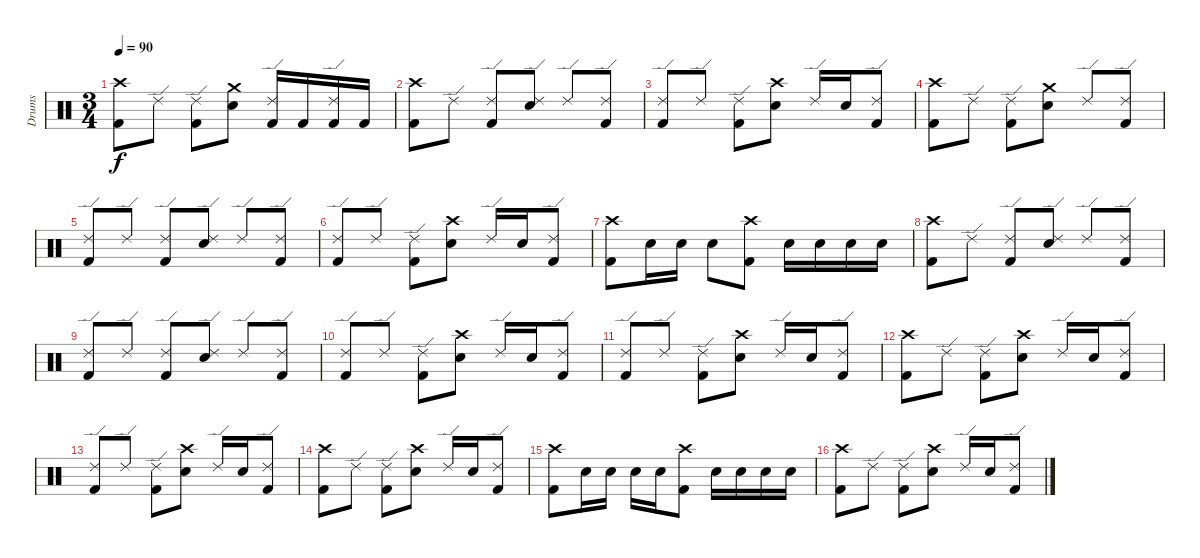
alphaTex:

\track ("Drums" "Drums") {instrument percussion}
\staff {score}
\articulation defaults
\ts (3 4)
\tempo 90
\clef neutral
\ks c
("Crash high (hit)" "Kick (hit) 2").8{dy f} "Ride (edge) 2".8 ("Ride (edge) 2" "Kick (hit) 2").8 ("Crash medium (hit)" "Electric Snare (hit)").8 ("Ride (edge) 2" "Kick (hit) 2").16 "Kick (hit) 2".16 ("Ride (edge) 2" "Kick (hit) 2").16 "Kick (hit) 2".16 |
("Crash high (hit)" "Kick (hit) 2").8 "Ride (edge) 2".8 ("Ride (edge) 2" "Kick (hit) 2").8 ("Ride (edge) 2" "Electric Snare (hit)").8 "Ride (edge) 2".8 ("Ride (edge) 2" "Kick (hit) 2").8 |
("Ride (edge) 2" "Kick (hit) 2").8 "Ride (edge) 2".8 ("Ride (edge) 2" "Kick (hit) 2").8 ("Crash high (hit)" "Electric Snare (hit)").8 "Ride (edge) 2".16 "Electric Snare (hit)".16 ("Ride (edge) 2" "Kick (hit) 2").8 |
("Crash high (hit)" "Kick (hit) 2").8 "Ride (edge) 2".8 ("Ride (edge) 2" "Kick (hit) 2").8 ("Crash medium (hit)" "Electric Snare (hit)").8 "Ride (edge) 2".8 ("Ride (edge) 2" "Kick (hit) 2").8 |
("Ride (edge) 2" "Kick (hit) 2").8 "Ride (edge) 2".8 ("Ride (edge) 2" "Kick (hit) 2").8 ("Ride (edge) 2" "Electric Snare (hit)").8 "Ride (edge) 2".8 ("Ride (edge) 2" "Kick (hit) 2").8 |
("Ride (edge) 2" "Kick (hit) 2").8 "Ride (edge) 2".8 ("Ride (edge) 2" "Kick (hit) 2").8 ("Crash high (hit)" "Electric Snare (hit)").8 "Ride (edge) 2".16 "Electric Snare (hit)".16 ("Ride (edge) 2" "Kick (hit) 2").8 |
("Crash high (hit)" "Kick (hit) 2").8 "Electric Snare (hit)".16 "Electric Snare (hit)".16 "Electric Snare (hit)".8 ("Crash high (hit)" "Kick (hit) 2").8 "Electric Snare (hit)".16 "Electric Snare (hit)".16 "Electric Snare (hit)".16 "Electric Snare (hit)".16 |
("Crash high (hit)" "Kick (hit) 2").8 "Ride (edge) 2".8 ("Ride (edge) 2" "Kick (hit) 2").8 ("Ride (edge) 2" "Electric Snare (hit)").8 "Ride (edge) 2".8 ("Ride (edge) 2" "Kick (hit) 2").8 |
("Ride (edge) 2" "Kick (hit) 2").8 "Ride (edge) 2".8 ("Ride (edge) 2" "Kick (hit) 2").8 ("Ride (edge) 2" "Electric Snare (hit)").8 "Ride (edge) 2".8 ("Ride (edge) 2" "Kick (hit) 2").8 |
("Ride (edge) 2" "Kick (hit) 2").8 "Ride (edge) 2".8 ("Ride (edge) 2" "Kick (hit) 2").8 ("Crash high (hit)" "Electric Snare (hit)").8 "Ride (edge) 2".16 "Electric Snare (hit)".16 ("Ride (edge) 2" "Kick (hit) 2").8 |
("Ride (edge) 2" "Kick (hit) 2").8 "Ride (edge) 2".8 ("Ride (edge) 2" "Kick (hit) 2").8 ("Crash high (hit)" "Electric Snare (hit)").8 "Ride (edge) 2".16 "Electric Snare (hit)".16 ("Ride (edge) 2" "Kick (hit) 2").8 |
("Crash high (hit)" "Kick (hit) 2").8 "Ride (edge) 2".8 ("Ride (edge) 2" "Kick (hit) 2").8 ("Crash high (hit)" "Electric Snare (hit)").8 "Ride (edge) 2".16 "Electric Snare (hit)".16 ("Ride (edge) 2" "Kick (hit) 2").8 |
("Ride (edge) 2" "Kick (hit) 2").8 "Ride (edge) 2".8 ("Ride (edge) 2" "Kick (hit) 2").8 ("Crash high (hit)" "Electric Snare (hit)").8 "Ride (edge) 2".16 "Electric Snare (hit)".16 ("Ride (edge) 2" "Kick (hit) 2").8 |
("Crash high (hit)" "Kick (hit) 2").8 "Ride (edge) 2".8 ("Ride (edge) 2" "Kick (hit) 2").8 ("Crash high (hit)" "Electric Snare (hit)").8 "Ride (edge) 2".16 "Electric Snare (hit)".16 ("Ride (edge) 2" "Kick (hit) 2").8 |
("Crash high (hit)" "Kick (hit) 2").8 "Electric Snare (hit)".16 "Electric Snare (hit)".16 "Electric Snare (hit)".16 "Electric Snare (hit)".16 ("Crash high (hit)" "Kick (hit) 2").8 "Electric Snare (hit)".16 "Electric Snare (hit)".16 "Electric Snare (hit)".16 "Electric Snare (hit)".16 |
("Crash high (hit)" "Kick (hit) 2").8 "Ride (edge) 2".8 ("Ride (edge) 2" "Kick (hit) 2").8 ("Crash high (hit)" "Electric Snare (hit)").8 "Ride (edge) 2".16 "Electric Snare (hit)".16 ("Ride (edge) 2" "Kick (hit) 2").8
